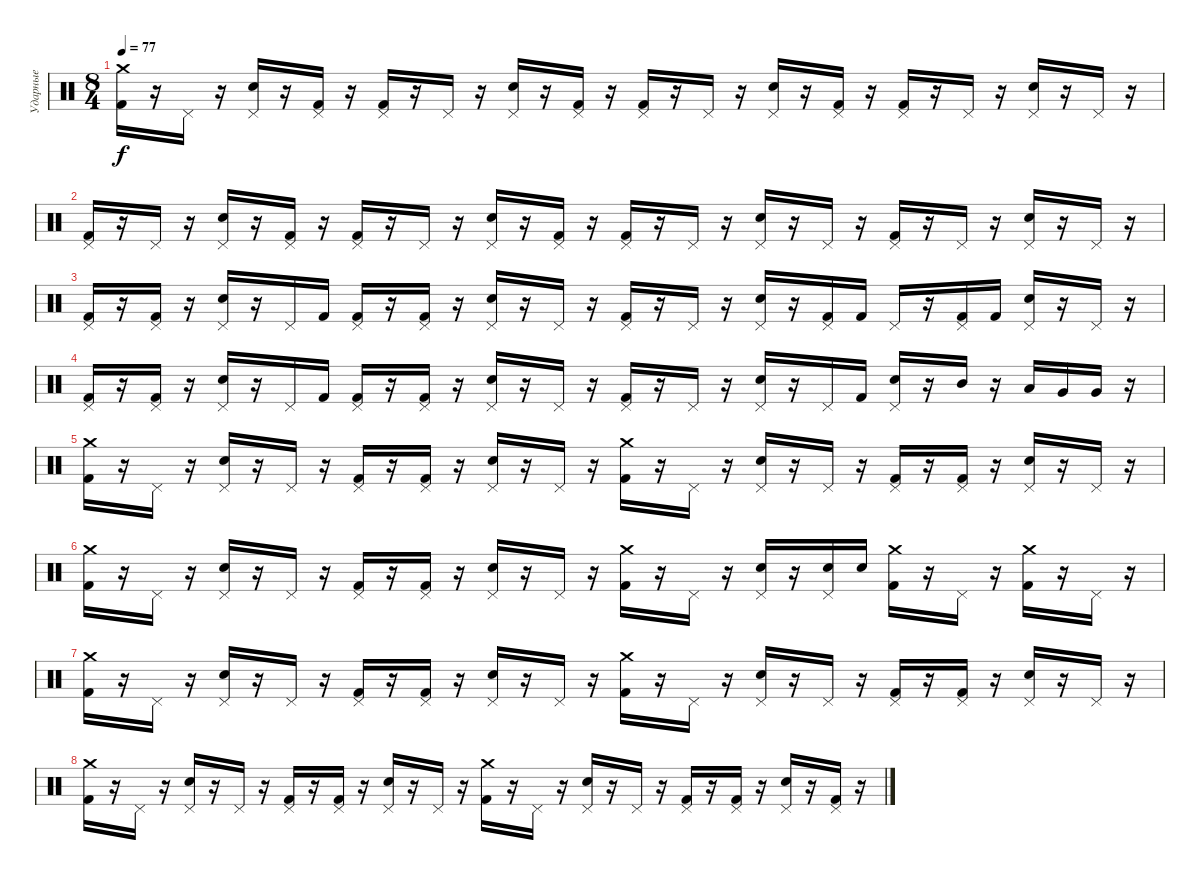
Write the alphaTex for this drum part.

\track ("Ударные" "Ударные") {instrument percussion}
\staff
\articulation defaults
\ts (8 4)
\tempo 77
\clef neutral
\ks c
("Crash medium (hit)" "Kick (hit) 2").16{dy f} r.16 "Pedal Hi-Hat (hit)".16 r.16 ("Pedal Hi-Hat (hit)" "Electric Snare (hit)").16 r.16 ("Pedal Hi-Hat (hit)" "Kick (hit) 2").16 r.16 ("Pedal Hi-Hat (hit)" "Kick (hit) 2").16 r.16 "Pedal Hi-Hat (hit)".16 r.16 ("Pedal Hi-Hat (hit)" "Electric Snare (hit)").16 r.16 ("Pedal Hi-Hat (hit)" "Kick (hit) 2").16 r.16 ("Pedal Hi-Hat (hit)" "Kick (hit) 2").16 r.16 "Pedal Hi-Hat (hit)".16 r.16 ("Pedal Hi-Hat (hit)" "Electric Snare (hit)").16 r.16 ("Pedal Hi-Hat (hit)" "Kick (hit) 2").16 r.16 ("Pedal Hi-Hat (hit)" "Kick (hit) 2").16 r.16 "Pedal Hi-Hat (hit)".16 r.16 ("Pedal Hi-Hat (hit)" "Electric Snare (hit)").16 r.16 "Pedal Hi-Hat (hit)".16 r.16 |
("Pedal Hi-Hat (hit)" "Kick (hit) 2").16 r.16 "Pedal Hi-Hat (hit)".16 r.16 ("Pedal Hi-Hat (hit)" "Electric Snare (hit)").16 r.16 ("Pedal Hi-Hat (hit)" "Kick (hit) 2").16 r.16 ("Pedal Hi-Hat (hit)" "Kick (hit) 2").16 r.16 "Pedal Hi-Hat (hit)".16 r.16 ("Pedal Hi-Hat (hit)" "Electric Snare (hit)").16 r.16 ("Pedal Hi-Hat (hit)" "Kick (hit) 2").16 r.16 ("Pedal Hi-Hat (hit)" "Kick (hit) 2").16 r.16 "Pedal Hi-Hat (hit)".16 r.16 ("Pedal Hi-Hat (hit)" "Electric Snare (hit)").16 r.16 "Pedal Hi-Hat (hit)".16 r.16 ("Pedal Hi-Hat (hit)" "Kick (hit) 2").16 r.16 "Pedal Hi-Hat (hit)".16 r.16 ("Pedal Hi-Hat (hit)" "Electric Snare (hit)").16 r.16 "Pedal Hi-Hat (hit)".16 r.16 |
("Pedal Hi-Hat (hit)" "Kick (hit) 2").16 r.16 ("Pedal Hi-Hat (hit)" "Kick (hit) 2").16 r.16 ("Pedal Hi-Hat (hit)" "Electric Snare (hit)").16 r.16 "Pedal Hi-Hat (hit)".16 "Kick (hit) 2".16 ("Pedal Hi-Hat (hit)" "Kick (hit) 2").16 r.16 ("Pedal Hi-Hat (hit)" "Kick (hit) 2").16 r.16 ("Pedal Hi-Hat (hit)" "Electric Snare (hit)").16 r.16 "Pedal Hi-Hat (hit)".16 r.16 ("Pedal Hi-Hat (hit)" "Kick (hit) 2").16 r.16 "Pedal Hi-Hat (hit)".16 r.16 ("Pedal Hi-Hat (hit)" "Electric Snare (hit)").16 r.16 ("Pedal Hi-Hat (hit)" "Kick (hit) 2").16 "Kick (hit) 2".16 "Pedal Hi-Hat (hit)".16 r.16 ("Pedal Hi-Hat (hit)" "Kick (hit) 2").16 "Kick (hit) 2".16 ("Pedal Hi-Hat (hit)" "Electric Snare (hit)").16 r.16 "Pedal Hi-Hat (hit)".16 r.16 |
("Pedal Hi-Hat (hit)" "Kick (hit) 2").16 r.16 ("Pedal Hi-Hat (hit)" "Kick (hit) 2").16 r.16 ("Pedal Hi-Hat (hit)" "Electric Snare (hit)").16 r.16 "Pedal Hi-Hat (hit)".16 "Kick (hit) 2".16 ("Pedal Hi-Hat (hit)" "Kick (hit) 2").16 r.16 ("Pedal Hi-Hat (hit)" "Kick (hit) 2").16 r.16 ("Pedal Hi-Hat (hit)" "Electric Snare (hit)").16 r.16 "Pedal Hi-Hat (hit)".16 r.16 ("Pedal Hi-Hat (hit)" "Kick (hit) 2").16 r.16 "Pedal Hi-Hat (hit)".16 r.16 ("Pedal Hi-Hat (hit)" "Electric Snare (hit)").16 r.16 "Pedal Hi-Hat (hit)".16 "Kick (hit) 2".16 ("Pedal Hi-Hat (hit)" "Electric Snare (hit)").16 r.16 "Mid Tom (hit)".16 r.16 "Low Tom (hit)".16 "Very Low Tom (hit)".16 "Very Low Tom (hit)".16 r.16 |
("Crash medium (hit)" "Kick (hit) 2").16 r.16 "Pedal Hi-Hat (hit)".16 r.16 ("Pedal Hi-Hat (hit)" "Electric Snare (hit)").16 r.16 "Pedal Hi-Hat (hit)".16 r.16 ("Pedal Hi-Hat (hit)" "Kick (hit) 2").16 r.16 ("Pedal Hi-Hat (hit)" "Kick (hit) 2").16 r.16 ("Pedal Hi-Hat (hit)" "Electric Snare (hit)").16 r.16 "Pedal Hi-Hat (hit)".16 r.16 ("Crash medium (hit)" "Kick (hit) 2").16 r.16 "Pedal Hi-Hat (hit)".16 r.16 ("Pedal Hi-Hat (hit)" "Electric Snare (hit)").16 r.16 "Pedal Hi-Hat (hit)".16 r.16 ("Pedal Hi-Hat (hit)" "Kick (hit) 2").16 r.16 ("Pedal Hi-Hat (hit)" "Kick (hit) 2").16 r.16 ("Pedal Hi-Hat (hit)" "Electric Snare (hit)").16 r.16 "Pedal Hi-Hat (hit)".16 r.16 |
("Crash medium (hit)" "Kick (hit) 2").16 r.16 "Pedal Hi-Hat (hit)".16 r.16 ("Pedal Hi-Hat (hit)" "Electric Snare (hit)").16 r.16 "Pedal Hi-Hat (hit)".16 r.16 ("Pedal Hi-Hat (hit)" "Kick (hit) 2").16 r.16 ("Pedal Hi-Hat (hit)" "Kick (hit) 2").16 r.16 ("Pedal Hi-Hat (hit)" "Electric Snare (hit)").16 r.16 "Pedal Hi-Hat (hit)".16 r.16 ("Crash medium (hit)" "Kick (hit) 2").16 r.16 "Pedal Hi-Hat (hit)".16 r.16 ("Pedal Hi-Hat (hit)" "Electric Snare (hit)").16 r.16 ("Pedal Hi-Hat (hit)" "Electric Snare (hit)").16 "Electric Snare (hit)".16 ("Crash medium (hit)" "Kick (hit) 2").16 r.16 "Pedal Hi-Hat (hit)".16 r.16 ("Crash medium (hit)" "Kick (hit) 2").16 r.16 "Pedal Hi-Hat (hit)".16 r.16 |
("Crash medium (hit)" "Kick (hit) 2").16 r.16 "Pedal Hi-Hat (hit)".16 r.16 ("Pedal Hi-Hat (hit)" "Electric Snare (hit)").16 r.16 "Pedal Hi-Hat (hit)".16 r.16 ("Pedal Hi-Hat (hit)" "Kick (hit) 2").16 r.16 ("Pedal Hi-Hat (hit)" "Kick (hit) 2").16 r.16 ("Pedal Hi-Hat (hit)" "Electric Snare (hit)").16 r.16 "Pedal Hi-Hat (hit)".16 r.16 ("Crash medium (hit)" "Kick (hit) 2").16 r.16 "Pedal Hi-Hat (hit)".16 r.16 ("Pedal Hi-Hat (hit)" "Electric Snare (hit)").16 r.16 "Pedal Hi-Hat (hit)".16 r.16 ("Pedal Hi-Hat (hit)" "Kick (hit) 2").16 r.16 ("Pedal Hi-Hat (hit)" "Kick (hit) 2").16 r.16 ("Pedal Hi-Hat (hit)" "Electric Snare (hit)").16 r.16 "Pedal Hi-Hat (hit)".16 r.16 |
("Crash medium (hit)" "Kick (hit) 2").16 r.16 "Pedal Hi-Hat (hit)".16 r.16 ("Pedal Hi-Hat (hit)" "Electric Snare (hit)").16 r.16 "Pedal Hi-Hat (hit)".16 r.16 ("Pedal Hi-Hat (hit)" "Kick (hit) 2").16 r.16 ("Pedal Hi-Hat (hit)" "Kick (hit) 2").16 r.16 ("Pedal Hi-Hat (hit)" "Electric Snare (hit)").16 r.16 "Pedal Hi-Hat (hit)".16 r.16 ("Crash medium (hit)" "Kick (hit) 2").16 r.16 "Pedal Hi-Hat (hit)".16 r.16 ("Pedal Hi-Hat (hit)" "Electric Snare (hit)").16 r.16 "Pedal Hi-Hat (hit)".16 r.16 ("Pedal Hi-Hat (hit)" "Kick (hit) 2").16 r.16 ("Pedal Hi-Hat (hit)" "Kick (hit) 2").16 r.16 ("Pedal Hi-Hat (hit)" "Electric Snare (hit)").16 r.16 ("Pedal Hi-Hat (hit)" "Kick (hit) 2").16 r.16
